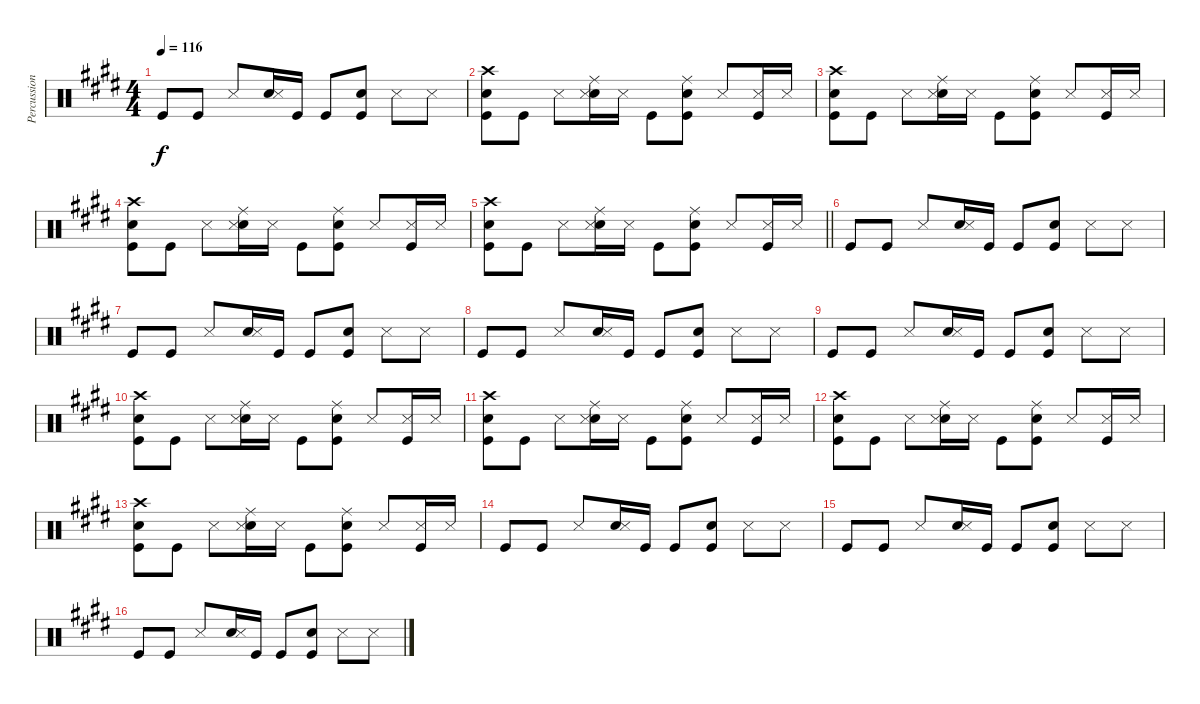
\track ("Percussion" "Percussion") {instrument percussion}
\staff {score}
\articulation defaults
\ts (4 4)
\tempo 116
\clef neutral
\ks e "Kick (hit)".8{dy f} "Kick (hit)".8 "Snare (side stick) 3".8
("Electric Snare (hit)" "Snare (side stick) 3").16 "Kick (hit)".16 "Kick (hit)".8 ("Electric Snare (hit)" "Kick (hit)").8 "Snare (side stick) 3".8 "Snare (side stick) 3".8 |
("Crash high (hit)" "Electric Snare (hit)" "Kick (hit)").8 "Kick (hit)".8 "Snare (side stick) 3".8 ("Ride (middle)" "Electric Snare (hit)" "Snare (side stick) 3").16 "Snare (side stick) 3".16 "Kick (hit)".8 ("Ride (middle)" "Electric Snare (hit)" "Kick (hit)").8 "Snare (side stick) 3".8 ("Snare (side stick) 3" "Kick (hit)").16 "Snare (side stick) 3".16 |
("Crash high (hit)" "Electric Snare (hit)" "Kick (hit)").8 "Kick (hit)".8 "Snare (side stick) 3".8 ("Ride (middle)" "Electric Snare (hit)" "Snare (side stick) 3").16 "Snare (side stick) 3".16 "Kick (hit)".8 ("Ride (middle)" "Electric Snare (hit)" "Kick (hit)").8 "Snare (side stick) 3".8 ("Snare (side stick) 3" "Kick (hit)").16 "Snare (side stick) 3".16 |
("Crash high (hit)" "Electric Snare (hit)" "Kick (hit)").8 "Kick (hit)".8 "Snare (side stick) 3".8 ("Ride (middle)" "Electric Snare (hit)" "Snare (side stick) 3").16 "Snare (side stick) 3".16 "Kick (hit)".8 ("Ride (middle)" "Electric Snare (hit)" "Kick (hit)").8 "Snare (side stick) 3".8 ("Snare (side stick) 3" "Kick (hit)").16 "Snare (side stick) 3".16 |
\barLineRight lightlight
("Crash high (hit)" "Electric Snare (hit)" "Kick (hit)").8 "Kick (hit)".8 "Snare (side stick) 3".8 ("Ride (middle)" "Electric Snare (hit)" "Snare (side stick) 3").16 "Snare (side stick) 3".16 "Kick (hit)".8 ("Ride (middle)" "Electric Snare (hit)" "Kick (hit)").8 "Snare (side stick) 3".8 ("Snare (side stick) 3" "Kick (hit)").16 "Snare (side stick) 3".16 |
"Kick (hit)".8 "Kick (hit)".8 "Snare (side stick) 3".8 ("Electric Snare (hit)" "Snare (side stick) 3").16 "Kick (hit)".16 "Kick (hit)".8 ("Electric Snare (hit)" "Kick (hit)").8 "Snare (side stick) 3".8 "Snare (side stick) 3".8 |
"Kick (hit)".8 "Kick (hit)".8 "Snare (side stick) 3".8 ("Electric Snare (hit)" "Snare (side stick) 3").16 "Kick (hit)".16 "Kick (hit)".8 ("Electric Snare (hit)" "Kick (hit)").8 "Snare (side stick) 3".8 "Snare (side stick) 3".8 |
"Kick (hit)".8 "Kick (hit)".8 "Snare (side stick) 3".8 ("Electric Snare (hit)" "Snare (side stick) 3").16 "Kick (hit)".16 "Kick (hit)".8 ("Electric Snare (hit)" "Kick (hit)").8 "Snare (side stick) 3".8 "Snare (side stick) 3".8 |
"Kick (hit)".8 "Kick (hit)".8 "Snare (side stick) 3".8 ("Electric Snare (hit)" "Snare (side stick) 3").16 "Kick (hit)".16 "Kick (hit)".8 ("Electric Snare (hit)" "Kick (hit)").8 "Snare (side stick) 3".8 "Snare (side stick) 3".8 |
("Crash high (hit)" "Electric Snare (hit)" "Kick (hit)").8 "Kick (hit)".8 "Snare (side stick) 3".8 ("Ride (middle)" "Electric Snare (hit)" "Snare (side stick) 3").16 "Snare (side stick) 3".16 "Kick (hit)".8 ("Ride (middle)" "Electric Snare (hit)" "Kick (hit)").8 "Snare (side stick) 3".8 ("Snare (side stick) 3" "Kick (hit)").16 "Snare (side stick) 3".16 |
("Crash high (hit)" "Electric Snare (hit)" "Kick (hit)").8 "Kick (hit)".8 "Snare (side stick) 3".8 ("Ride (middle)" "Electric Snare (hit)" "Snare (side stick) 3").16 "Snare (side stick) 3".16 "Kick (hit)".8 ("Ride (middle)" "Electric Snare (hit)" "Kick (hit)").8 "Snare (side stick) 3".8 ("Snare (side stick) 3" "Kick (hit)").16 "Snare (side stick) 3".16 |
("Crash high (hit)" "Electric Snare (hit)" "Kick (hit)").8 "Kick (hit)".8 "Snare (side stick) 3".8 ("Ride (middle)" "Electric Snare (hit)" "Snare (side stick) 3").16 "Snare (side stick) 3".16 "Kick (hit)".8 ("Ride (middle)" "Electric Snare (hit)" "Kick (hit)").8 "Snare (side stick) 3".8 ("Snare (side stick) 3" "Kick (hit)").16 "Snare (side stick) 3".16 |
("Crash high (hit)" "Electric Snare (hit)" "Kick (hit)").8 "Kick (hit)".8 "Snare (side stick) 3".8 ("Ride (middle)" "Electric Snare (hit)" "Snare (side stick) 3").16 "Snare (side stick) 3".16 "Kick (hit)".8 ("Ride (middle)" "Electric Snare (hit)" "Kick (hit)").8 "Snare (side stick) 3".8 ("Snare (side stick) 3" "Kick (hit)").16 "Snare (side stick) 3".16 |
"Kick (hit)".8 "Kick (hit)".8 "Snare (side stick) 3".8 ("Electric Snare (hit)" "Snare (side stick) 3").16 "Kick (hit)".16 "Kick (hit)".8 ("Electric Snare (hit)" "Kick (hit)").8 "Snare (side stick) 3".8 "Snare (side stick) 3".8 |
"Kick (hit)".8 "Kick (hit)".8 "Snare (side stick) 3".8 ("Electric Snare (hit)" "Snare (side stick) 3").16 "Kick (hit)".16 "Kick (hit)".8 ("Electric Snare (hit)" "Kick (hit)").8 "Snare (side stick) 3".8 "Snare (side stick) 3".8 |
"Kick (hit)".8 "Kick (hit)".8 "Snare (side stick) 3".8 ("Electric Snare (hit)" "Snare (side stick) 3").16 "Kick (hit)".16 "Kick (hit)".8 ("Electric Snare (hit)" "Kick (hit)").8 "Snare (side stick) 3".8 "Snare (side stick) 3".8
